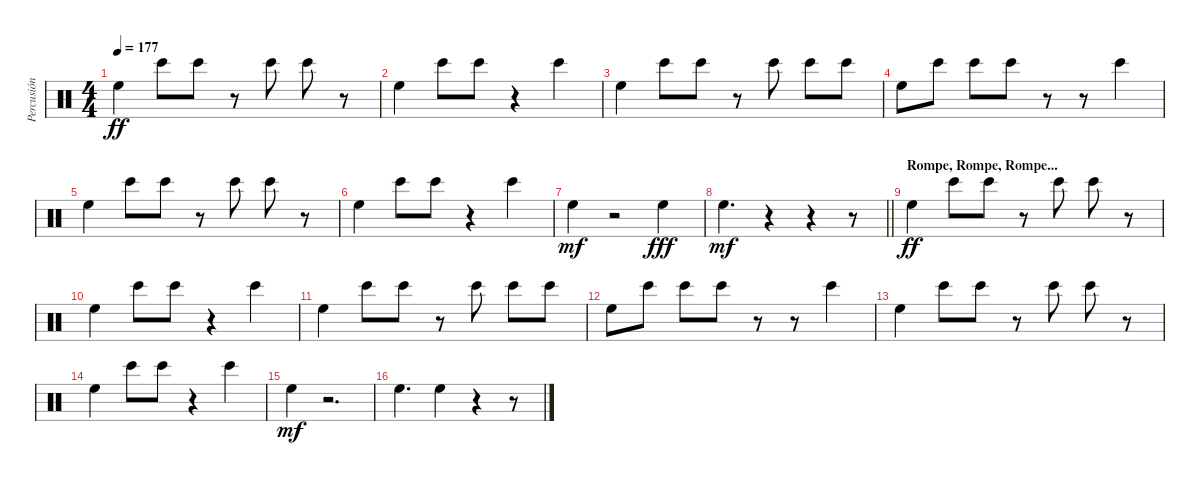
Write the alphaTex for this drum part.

\track ("Percusión" "Percusión") {instrument percussion}
\staff {score}
\articulation defaults
\ts (4 4)
\tempo 177
\clef neutral
\ks c "High Floor Tom (hit)".4{dy ff} "Bongo High (hit)".8 "Bongo High (hit)".8
r.8 "Bongo High (hit)".8 "Bongo High (hit)".8 r.8 |
"High Floor Tom (hit)".4 "Bongo High (hit)".8 "Bongo High (hit)".8 r.4 "Bongo High (hit)".4 |
"High Floor Tom (hit)".4 "Bongo High (hit)".8 "Bongo High (hit)".8 r.8 "Bongo High (hit)".8 "Bongo High (hit)".8 "Bongo High (hit)".8 |
"High Floor Tom (hit)".8 "Bongo High (hit)".8 "Bongo High (hit)".8 "Bongo High (hit)".8 r.8 r.8 "Bongo High (hit)".4 |
"High Floor Tom (hit)".4 "Bongo High (hit)".8 "Bongo High (hit)".8 r.8 "Bongo High (hit)".8 "Bongo High (hit)".8 r.8 |
"High Floor Tom (hit)".4 "Bongo High (hit)".8 "Bongo High (hit)".8 r.4 "Bongo High (hit)".4 |
"High Floor Tom (hit)".4{dy mf} r.2 "High Floor Tom (hit)".4{dy fff} |
\barLineRight lightlight "High Floor Tom (hit)".4{d dy mf}
r.4 r.4 r.8 |
\section ("" "Rompe, Rompe, Rompe...")
"High Floor Tom (hit)".4{dy ff} "Bongo High (hit)".8 "Bongo High (hit)".8 r.8 "Bongo High (hit)".8 "Bongo High (hit)".8 r.8 |
"High Floor Tom (hit)".4 "Bongo High (hit)".8 "Bongo High (hit)".8 r.4 "Bongo High (hit)".4 |
"High Floor Tom (hit)".4 "Bongo High (hit)".8 "Bongo High (hit)".8 r.8 "Bongo High (hit)".8 "Bongo High (hit)".8 "Bongo High (hit)".8 |
"High Floor Tom (hit)".8 "Bongo High (hit)".8 "Bongo High (hit)".8 "Bongo High (hit)".8 r.8 r.8 "Bongo High (hit)".4 |
"High Floor Tom (hit)".4 "Bongo High (hit)".8 "Bongo High (hit)".8 r.8 "Bongo High (hit)".8 "Bongo High (hit)".8 r.8 |
"High Floor Tom (hit)".4 "Bongo High (hit)".8 "Bongo High (hit)".8 r.4 "Bongo High (hit)".4 |
"High Floor Tom (hit)".4{dy mf} r.2{d} |
"High Floor Tom (hit)".4{d} "High Floor Tom (hit)".4 r.4 r.8
